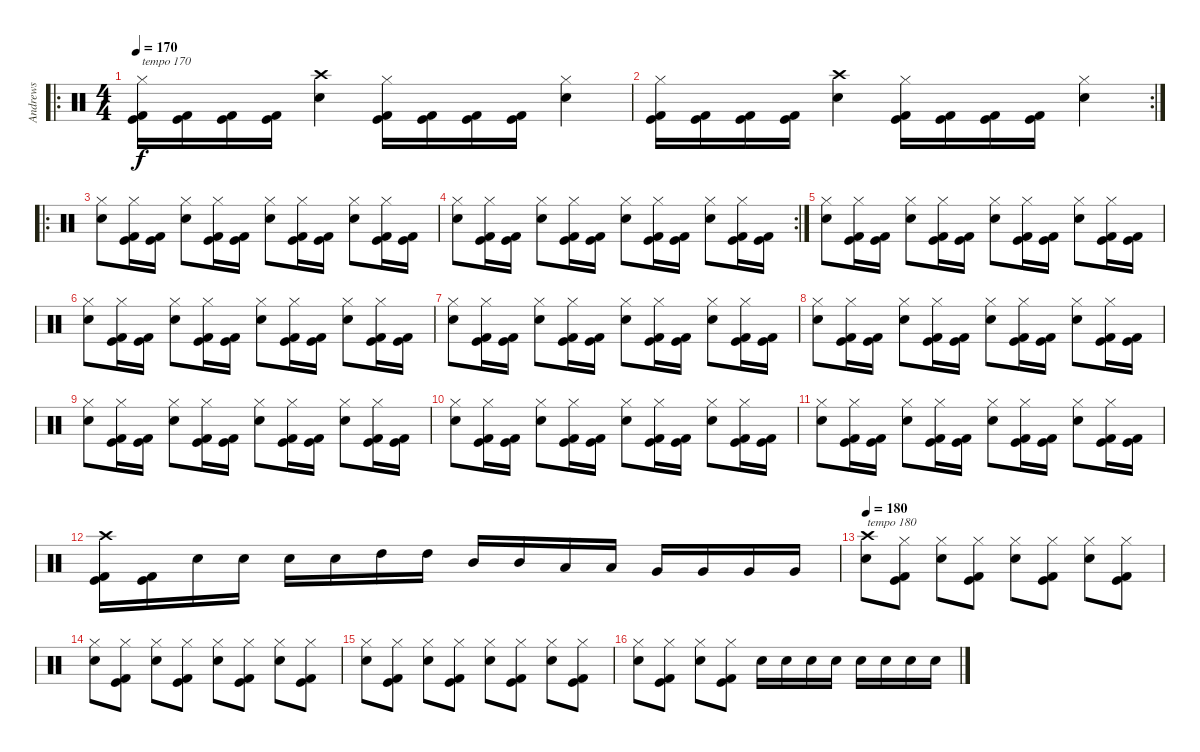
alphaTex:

\track ("Andrews" "Andrews") {instrument percussion}
\staff {score}
\articulation defaults
\ro
\ts (4 4)
\tempo 170
\clef neutral
\ks c
("Hi-Hat (closed)" "Kick (hit) 2" "Kick (hit)").16{txt "tempo 170" dy f} ("Kick (hit) 2" "Kick (hit)").16 ("Kick (hit) 2" "Kick (hit)").16 ("Kick (hit) 2" "Kick (hit)").16 ("Electric Snare (hit)" "Crash high (hit)").4 ("Hi-Hat (closed)" "Kick (hit) 2" "Kick (hit)").16 ("Kick (hit) 2" "Kick (hit)").16 ("Kick (hit) 2" "Kick (hit)").16 ("Kick (hit) 2" "Kick (hit)").16 ("Electric Snare (hit)" "Hi-Hat (closed)").4 |
\rc 2
("Hi-Hat (closed)" "Kick (hit) 2" "Kick (hit)").16 ("Kick (hit) 2" "Kick (hit)").16 ("Kick (hit) 2" "Kick (hit)").16 ("Kick (hit) 2" "Kick (hit)").16 ("Electric Snare (hit)" "Crash high (hit)").4 ("Hi-Hat (closed)" "Kick (hit) 2" "Kick (hit)").16 ("Kick (hit) 2" "Kick (hit)").16 ("Kick (hit) 2" "Kick (hit)").16 ("Kick (hit) 2" "Kick (hit)").16 ("Electric Snare (hit)" "Hi-Hat (closed)").4 |
\ro
("Hi-Hat (closed)" "Electric Snare (hit)").8 ("Hi-Hat (closed)" "Kick (hit) 2" "Kick (hit)").16 ("Kick (hit) 2" "Kick (hit)").16 ("Hi-Hat (closed)" "Electric Snare (hit)").8 ("Hi-Hat (closed)" "Kick (hit) 2" "Kick (hit)").16 ("Kick (hit) 2" "Kick (hit)").16 ("Hi-Hat (closed)" "Electric Snare (hit)").8 ("Hi-Hat (closed)" "Kick (hit) 2" "Kick (hit)").16 ("Kick (hit) 2" "Kick (hit)").16 ("Hi-Hat (closed)" "Electric Snare (hit)").8 ("Hi-Hat (closed)" "Kick (hit) 2" "Kick (hit)").16 ("Kick (hit) 2" "Kick (hit)").16 |
\rc 2
("Hi-Hat (closed)" "Electric Snare (hit)").8 ("Hi-Hat (closed)" "Kick (hit) 2" "Kick (hit)").16 ("Kick (hit) 2" "Kick (hit)").16 ("Hi-Hat (closed)" "Electric Snare (hit)").8 ("Hi-Hat (closed)" "Kick (hit) 2" "Kick (hit)").16 ("Kick (hit) 2" "Kick (hit)").16 ("Hi-Hat (closed)" "Electric Snare (hit)").8 ("Hi-Hat (closed)" "Kick (hit) 2" "Kick (hit)").16 ("Kick (hit) 2" "Kick (hit)").16 ("Hi-Hat (closed)" "Electric Snare (hit)").8 ("Hi-Hat (closed)" "Kick (hit) 2" "Kick (hit)").16 ("Kick (hit) 2" "Kick (hit)").16 |
("Hi-Hat (closed)" "Electric Snare (hit)").8 ("Hi-Hat (closed)" "Kick (hit) 2" "Kick (hit)").16 ("Kick (hit) 2" "Kick (hit)").16 ("Hi-Hat (closed)" "Electric Snare (hit)").8 ("Hi-Hat (closed)" "Kick (hit) 2" "Kick (hit)").16 ("Kick (hit) 2" "Kick (hit)").16 ("Hi-Hat (closed)" "Electric Snare (hit)").8 ("Hi-Hat (closed)" "Kick (hit) 2" "Kick (hit)").16 ("Kick (hit) 2" "Kick (hit)").16 ("Hi-Hat (closed)" "Electric Snare (hit)").8 ("Hi-Hat (closed)" "Kick (hit) 2" "Kick (hit)").16 ("Kick (hit) 2" "Kick (hit)").16 |
("Hi-Hat (closed)" "Electric Snare (hit)").8 ("Hi-Hat (closed)" "Kick (hit) 2" "Kick (hit)").16 ("Kick (hit) 2" "Kick (hit)").16 ("Hi-Hat (closed)" "Electric Snare (hit)").8 ("Hi-Hat (closed)" "Kick (hit) 2" "Kick (hit)").16 ("Kick (hit) 2" "Kick (hit)").16 ("Hi-Hat (closed)" "Electric Snare (hit)").8 ("Hi-Hat (closed)" "Kick (hit) 2" "Kick (hit)").16 ("Kick (hit) 2" "Kick (hit)").16 ("Hi-Hat (closed)" "Electric Snare (hit)").8 ("Hi-Hat (closed)" "Kick (hit) 2" "Kick (hit)").16 ("Kick (hit) 2" "Kick (hit)").16 |
("Hi-Hat (closed)" "Electric Snare (hit)").8 ("Hi-Hat (closed)" "Kick (hit) 2" "Kick (hit)").16 ("Kick (hit) 2" "Kick (hit)").16 ("Hi-Hat (closed)" "Electric Snare (hit)").8 ("Hi-Hat (closed)" "Kick (hit) 2" "Kick (hit)").16 ("Kick (hit) 2" "Kick (hit)").16 ("Hi-Hat (closed)" "Electric Snare (hit)").8 ("Hi-Hat (closed)" "Kick (hit) 2" "Kick (hit)").16 ("Kick (hit) 2" "Kick (hit)").16 ("Hi-Hat (closed)" "Electric Snare (hit)").8 ("Hi-Hat (closed)" "Kick (hit) 2" "Kick (hit)").16 ("Kick (hit) 2" "Kick (hit)").16 |
("Hi-Hat (closed)" "Electric Snare (hit)").8 ("Hi-Hat (closed)" "Kick (hit) 2" "Kick (hit)").16 ("Kick (hit) 2" "Kick (hit)").16 ("Hi-Hat (closed)" "Electric Snare (hit)").8 ("Hi-Hat (closed)" "Kick (hit) 2" "Kick (hit)").16 ("Kick (hit) 2" "Kick (hit)").16 ("Hi-Hat (closed)" "Electric Snare (hit)").8 ("Hi-Hat (closed)" "Kick (hit) 2" "Kick (hit)").16 ("Kick (hit) 2" "Kick (hit)").16 ("Hi-Hat (closed)" "Electric Snare (hit)").8 ("Hi-Hat (closed)" "Kick (hit) 2" "Kick (hit)").16 ("Kick (hit) 2" "Kick (hit)").16 |
("Hi-Hat (closed)" "Electric Snare (hit)").8 ("Hi-Hat (closed)" "Kick (hit) 2" "Kick (hit)").16 ("Kick (hit) 2" "Kick (hit)").16 ("Hi-Hat (closed)" "Electric Snare (hit)").8 ("Hi-Hat (closed)" "Kick (hit) 2" "Kick (hit)").16 ("Kick (hit) 2" "Kick (hit)").16 ("Hi-Hat (closed)" "Electric Snare (hit)").8 ("Hi-Hat (closed)" "Kick (hit) 2" "Kick (hit)").16 ("Kick (hit) 2" "Kick (hit)").16 ("Hi-Hat (closed)" "Electric Snare (hit)").8 ("Hi-Hat (closed)" "Kick (hit) 2" "Kick (hit)").16 ("Kick (hit) 2" "Kick (hit)").16 |
("Hi-Hat (closed)" "Electric Snare (hit)").8 ("Hi-Hat (closed)" "Kick (hit) 2" "Kick (hit)").16 ("Kick (hit) 2" "Kick (hit)").16 ("Hi-Hat (closed)" "Electric Snare (hit)").8 ("Hi-Hat (closed)" "Kick (hit) 2" "Kick (hit)").16 ("Kick (hit) 2" "Kick (hit)").16 ("Hi-Hat (closed)" "Electric Snare (hit)").8 ("Hi-Hat (closed)" "Kick (hit) 2" "Kick (hit)").16 ("Kick (hit) 2" "Kick (hit)").16 ("Hi-Hat (closed)" "Electric Snare (hit)").8 ("Hi-Hat (closed)" "Kick (hit) 2" "Kick (hit)").16 ("Kick (hit) 2" "Kick (hit)").16 |
("Hi-Hat (closed)" "Electric Snare (hit)").8 ("Hi-Hat (closed)" "Kick (hit) 2" "Kick (hit)").16 ("Kick (hit) 2" "Kick (hit)").16 ("Hi-Hat (closed)" "Electric Snare (hit)").8 ("Hi-Hat (closed)" "Kick (hit) 2" "Kick (hit)").16 ("Kick (hit) 2" "Kick (hit)").16 ("Hi-Hat (closed)" "Electric Snare (hit)").8 ("Hi-Hat (closed)" "Kick (hit) 2" "Kick (hit)").16 ("Kick (hit) 2" "Kick (hit)").16 ("Hi-Hat (closed)" "Electric Snare (hit)").8 ("Hi-Hat (closed)" "Kick (hit) 2" "Kick (hit)").16 ("Kick (hit) 2" "Kick (hit)").16 |
("Crash high (hit)" "Kick (hit) 2" "Kick (hit)").16 ("Kick (hit) 2" "Kick (hit)").16 "Electric Snare (hit)".16 "Electric Snare (hit)".16 "Electric Snare (hit)".16 "Electric Snare (hit)".16 "High Tom (hit)".16 "High Tom (hit)".16 "Mid Tom (hit)".16 "Mid Tom (hit)".16 "Low Tom (hit)".16 "Low Tom (hit)".16 "Very Low Tom (hit)".16 "Very Low Tom (hit)".16 "Very Low Tom (hit)".16 "Very Low Tom (hit)".16 |
\tempo 180
("Crash high (hit)" "Electric Snare (hit)").8{txt "tempo 180"} ("Hi-Hat (closed)" "Kick (hit) 2" "Kick (hit)").8 ("Hi-Hat (closed)" "Electric Snare (hit)").8 ("Hi-Hat (closed)" "Kick (hit) 2" "Kick (hit)").8 ("Hi-Hat (closed)" "Electric Snare (hit)").8 ("Hi-Hat (closed)" "Kick (hit) 2" "Kick (hit)").8 ("Hi-Hat (closed)" "Electric Snare (hit)").8 ("Hi-Hat (closed)" "Kick (hit) 2" "Kick (hit)").8 |
("Hi-Hat (closed)" "Electric Snare (hit)").8 ("Hi-Hat (closed)" "Kick (hit) 2" "Kick (hit)").8 ("Hi-Hat (closed)" "Electric Snare (hit)").8 ("Hi-Hat (closed)" "Kick (hit) 2" "Kick (hit)").8 ("Hi-Hat (closed)" "Electric Snare (hit)").8 ("Hi-Hat (closed)" "Kick (hit) 2" "Kick (hit)").8 ("Hi-Hat (closed)" "Electric Snare (hit)").8 ("Hi-Hat (closed)" "Kick (hit) 2" "Kick (hit)").8 |
("Hi-Hat (closed)" "Electric Snare (hit)").8 ("Hi-Hat (closed)" "Kick (hit) 2" "Kick (hit)").8 ("Hi-Hat (closed)" "Electric Snare (hit)").8 ("Hi-Hat (closed)" "Kick (hit) 2" "Kick (hit)").8 ("Hi-Hat (closed)" "Electric Snare (hit)").8 ("Hi-Hat (closed)" "Kick (hit) 2" "Kick (hit)").8 ("Hi-Hat (closed)" "Electric Snare (hit)").8 ("Hi-Hat (closed)" "Kick (hit) 2" "Kick (hit)").8 |
("Hi-Hat (closed)" "Electric Snare (hit)").8 ("Hi-Hat (closed)" "Kick (hit) 2" "Kick (hit)").8 ("Hi-Hat (closed)" "Electric Snare (hit)").8 ("Hi-Hat (closed)" "Kick (hit) 2" "Kick (hit)").8 "Electric Snare (hit)".16 "Electric Snare (hit)".16 "Electric Snare (hit)".16 "Electric Snare (hit)".16 "Electric Snare (hit)".16 "Electric Snare (hit)".16 "Electric Snare (hit)".16 "Electric Snare (hit)".16
